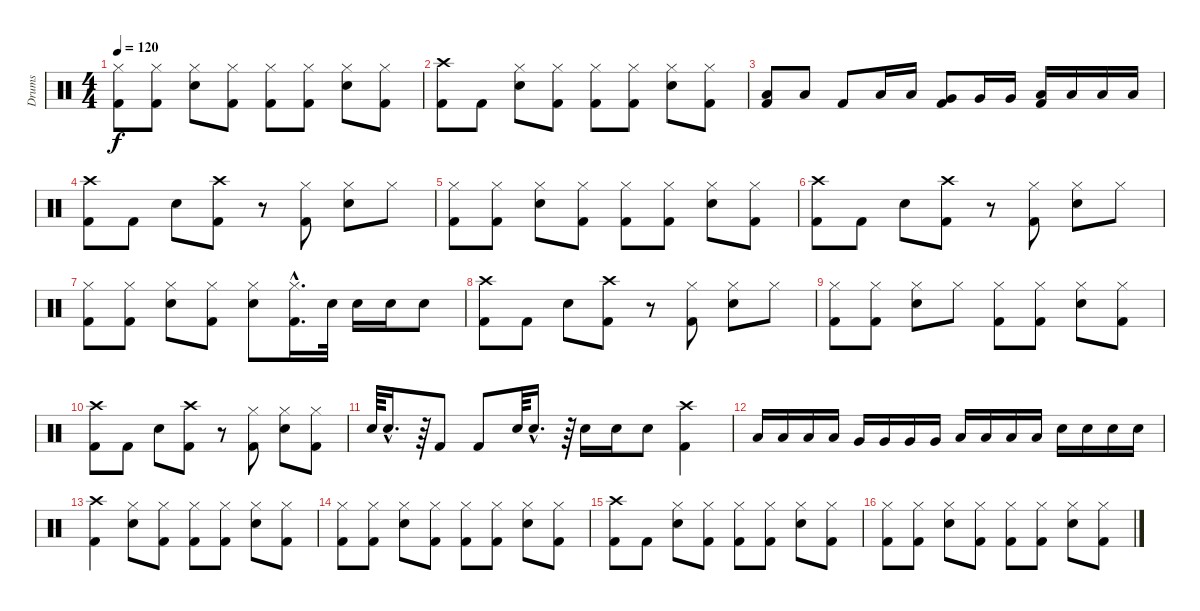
\track ("Drums" "Drums") {instrument percussion}
\staff {score}
\articulation defaults
\ts (4 4)
\tempo 120
\clef neutral
\ks c
("Hi-Hat (closed)" "Kick (hit) 2").8{dy f} ("Hi-Hat (closed)" "Kick (hit) 2").8 ("Hi-Hat (closed)" "Electric Snare (hit)").8 ("Hi-Hat (closed)" "Kick (hit) 2").8 ("Hi-Hat (closed)" "Kick (hit) 2").8 ("Hi-Hat (closed)" "Kick (hit) 2").8 ("Hi-Hat (closed)" "Electric Snare (hit)").8 ("Hi-Hat (closed)" "Kick (hit) 2").8 |
("Crash high (hit)" "Kick (hit) 2").8 "Kick (hit) 2".8 ("Hi-Hat (closed)" "Electric Snare (hit)").8 ("Hi-Hat (closed)" "Kick (hit) 2").8 ("Hi-Hat (closed)" "Kick (hit) 2").8 ("Hi-Hat (closed)" "Kick (hit) 2").8 ("Hi-Hat (closed)" "Electric Snare (hit)").8 ("Hi-Hat (closed)" "Kick (hit) 2").8 |
("Kick (hit) 2" "Low Tom (hit)").8 "Low Tom (hit)".8 "Kick (hit) 2".8 "Low Tom (hit)".16 "Low Tom (hit)".16 ("Kick (hit) 2" "Very Low Tom (hit)").8 "Very Low Tom (hit)".16 "Very Low Tom (hit)".16 ("Kick (hit) 2" "Low Floor Tom (hit)").16 "Low Floor Tom (hit)".16 "Low Floor Tom (hit)".16 "Low Floor Tom (hit)".16 |
("Crash high (hit)" "Kick (hit) 2").8 "Kick (hit) 2".8 "Electric Snare (hit)".8 ("Crash high (hit)" "Kick (hit) 2").8 r.8 ("Hi-Hat (closed)" "Kick (hit) 2").8 ("Hi-Hat (closed)" "Electric Snare (hit)").8 "Hi-Hat (closed)".8 |
("Hi-Hat (closed)" "Kick (hit) 2").8 ("Hi-Hat (closed)" "Kick (hit) 2").8 ("Hi-Hat (closed)" "Electric Snare (hit)").8 ("Hi-Hat (closed)" "Kick (hit) 2").8 ("Hi-Hat (closed)" "Kick (hit) 2").8 ("Hi-Hat (closed)" "Kick (hit) 2").8 ("Hi-Hat (closed)" "Electric Snare (hit)").8 ("Hi-Hat (closed)" "Kick (hit) 2").8 |
("Crash high (hit)" "Kick (hit) 2").8 "Kick (hit) 2".8 "Electric Snare (hit)".8 ("Crash high (hit)" "Kick (hit) 2").8 r.8 ("Hi-Hat (closed)" "Kick (hit) 2").8 ("Hi-Hat (closed)" "Electric Snare (hit)").8 "Hi-Hat (closed)".8 |
("Hi-Hat (closed)" "Kick (hit) 2").8 ("Hi-Hat (closed)" "Kick (hit) 2").8 ("Hi-Hat (closed)" "Electric Snare (hit)").8 ("Hi-Hat (closed)" "Kick (hit) 2").8 ("Hi-Hat (closed)" "Electric Snare (hit)").8 ("Hi-Hat (closed)"{hac} "Kick (hit) 2"{hac}).16{d} "Electric Snare (hit)".32 "Electric Snare (hit)".16 "Electric Snare (hit)".16 "Electric Snare (hit)".8 |
("Crash high (hit)" "Kick (hit) 2").8 "Kick (hit) 2".8 "Electric Snare (hit)".8 ("Crash high (hit)" "Kick (hit) 2").8 r.8 ("Hi-Hat (closed)" "Kick (hit) 2").8 ("Hi-Hat (closed)" "Electric Snare (hit)").8 "Hi-Hat (closed)".8 |
("Hi-Hat (closed)" "Kick (hit) 2").8 ("Hi-Hat (closed)" "Kick (hit) 2").8 ("Hi-Hat (closed)" "Electric Snare (hit)").8 "Hi-Hat (closed)".8 ("Hi-Hat (closed)" "Kick (hit) 2").8 ("Hi-Hat (closed)" "Kick (hit) 2").8 ("Hi-Hat (closed)" "Electric Snare (hit)").8 ("Hi-Hat (closed)" "Kick (hit) 2").8 |
("Crash high (hit)" "Kick (hit) 2").8 "Kick (hit) 2".8 "Electric Snare (hit)".8 ("Crash high (hit)" "Kick (hit) 2").8 r.8 ("Hi-Hat (closed)" "Kick (hit) 2").8 ("Hi-Hat (closed)" "Electric Snare (hit)").8 ("Hi-Hat (closed)" "Kick (hit) 2").8 |
"Electric Snare (hit)".64 "Electric Snare (hit)"{hac}.16{d} r.64 "Kick (hit) 2".8 "Kick (hit) 2".8 "Electric Snare (hit)".64 "Electric Snare (hit)"{hac}.16{d} r.64 "Electric Snare (hit)".16 "Electric Snare (hit)".16 "Electric Snare (hit)".8 ("Crash high (hit)" "Kick (hit) 2").4 |
"Low Tom (hit)".16 "Low Tom (hit)".16 "Low Tom (hit)".16 "Low Tom (hit)".16 "Very Low Tom (hit)".16 "Very Low Tom (hit)".16 "Very Low Tom (hit)".16 "Very Low Tom (hit)".16 "Low Floor Tom (hit)".16 "Low Floor Tom (hit)".16 "Low Floor Tom (hit)".16 "Low Floor Tom (hit)".16 "Electric Snare (hit)".16 "Electric Snare (hit)".16 "Electric Snare (hit)".16 "Electric Snare (hit)".16 |
("Crash high (hit)" "Kick (hit) 2").4 ("Hi-Hat (closed)" "Electric Snare (hit)").8 ("Hi-Hat (closed)" "Kick (hit) 2").8 ("Hi-Hat (closed)" "Kick (hit) 2").8 ("Hi-Hat (closed)" "Kick (hit) 2").8 ("Hi-Hat (closed)" "Electric Snare (hit)").8 ("Hi-Hat (closed)" "Kick (hit) 2").8 |
("Hi-Hat (closed)" "Kick (hit) 2").8 ("Hi-Hat (closed)" "Kick (hit) 2").8 ("Hi-Hat (closed)" "Electric Snare (hit)").8 ("Hi-Hat (closed)" "Kick (hit) 2").8 ("Hi-Hat (closed)" "Kick (hit) 2").8 ("Hi-Hat (closed)" "Kick (hit) 2").8 ("Hi-Hat (closed)" "Electric Snare (hit)").8 ("Hi-Hat (closed)" "Kick (hit) 2").8 |
("Crash high (hit)" "Kick (hit) 2").8 "Kick (hit) 2".8 ("Hi-Hat (closed)" "Electric Snare (hit)").8 ("Hi-Hat (closed)" "Kick (hit) 2").8 ("Hi-Hat (closed)" "Kick (hit) 2").8 ("Hi-Hat (closed)" "Kick (hit) 2").8 ("Hi-Hat (closed)" "Electric Snare (hit)").8 ("Hi-Hat (closed)" "Kick (hit) 2").8 |
("Hi-Hat (closed)" "Kick (hit) 2").8 ("Hi-Hat (closed)" "Kick (hit) 2").8 ("Hi-Hat (closed)" "Electric Snare (hit)").8 ("Hi-Hat (closed)" "Kick (hit) 2").8 ("Hi-Hat (closed)" "Kick (hit) 2").8 ("Hi-Hat (closed)" "Kick (hit) 2").8 ("Hi-Hat (closed)" "Electric Snare (hit)").8 ("Hi-Hat (closed)" "Kick (hit) 2").8
